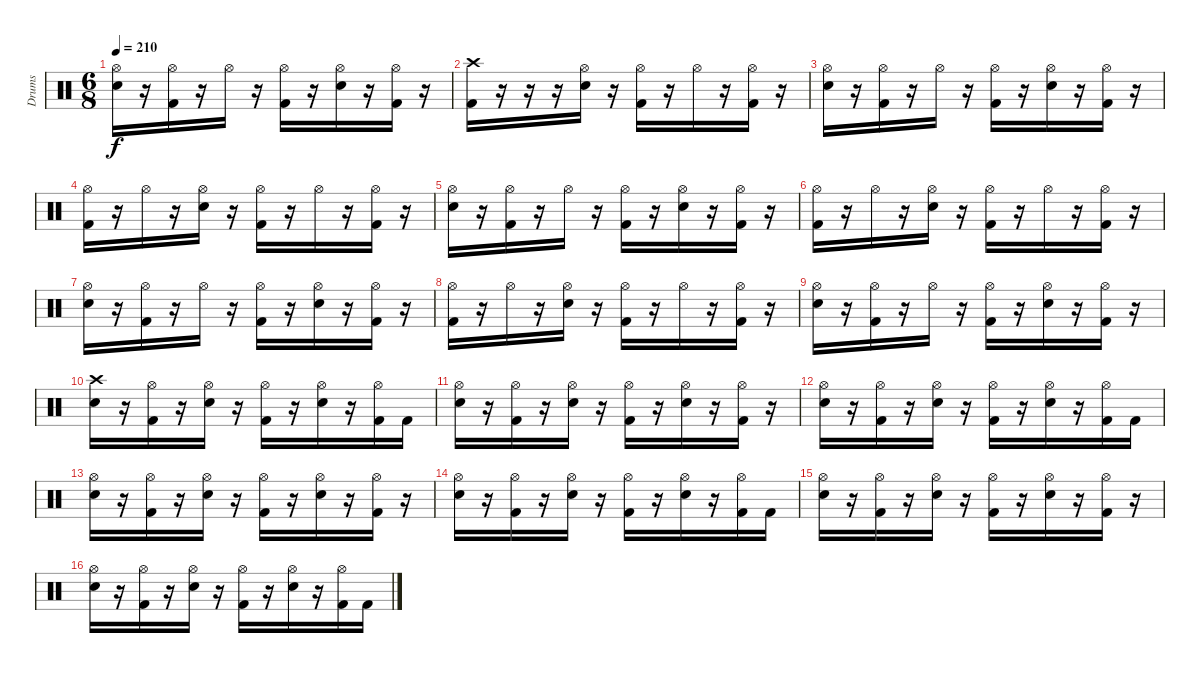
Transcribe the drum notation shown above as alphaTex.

\track ("Drums" "Drums") {instrument percussion}
\staff {score}
\articulation defaults
\ts (6 8)
\tempo 210
\clef neutral
\ks c
("Hi-Hat (open)" "Electric Snare (hit)").16{dy f} r.16 ("Hi-Hat (open)" "Kick (hit) 2").16 r.16 "Hi-Hat (open)".16 r.16 ("Hi-Hat (open)" "Kick (hit) 2").16 r.16 ("Hi-Hat (open)" "Electric Snare (hit)").16 r.16 ("Hi-Hat (open)" "Kick (hit) 2").16 r.16 |
("Crash high (hit)" "Kick (hit) 2").16 r.16 r.16 r.16 ("Hi-Hat (open)" "Electric Snare (hit)").16 r.16 ("Hi-Hat (open)" "Kick (hit) 2").16 r.16 "Hi-Hat (open)".16 r.16 ("Hi-Hat (open)" "Kick (hit) 2").16 r.16 |
("Hi-Hat (open)" "Electric Snare (hit)").16 r.16 ("Hi-Hat (open)" "Kick (hit) 2").16 r.16 "Hi-Hat (open)".16 r.16 ("Hi-Hat (open)" "Kick (hit) 2").16 r.16 ("Hi-Hat (open)" "Electric Snare (hit)").16 r.16 ("Hi-Hat (open)" "Kick (hit) 2").16 r.16 |
("Hi-Hat (open)" "Kick (hit) 2").16 r.16 "Hi-Hat (open)".16 r.16 ("Hi-Hat (open)" "Electric Snare (hit)").16 r.16 ("Hi-Hat (open)" "Kick (hit) 2").16 r.16 "Hi-Hat (open)".16 r.16 ("Hi-Hat (open)" "Kick (hit) 2").16 r.16 |
("Hi-Hat (open)" "Electric Snare (hit)").16 r.16 ("Hi-Hat (open)" "Kick (hit) 2").16 r.16 "Hi-Hat (open)".16 r.16 ("Hi-Hat (open)" "Kick (hit) 2").16 r.16 ("Hi-Hat (open)" "Electric Snare (hit)").16 r.16 ("Hi-Hat (open)" "Kick (hit) 2").16 r.16 |
("Hi-Hat (open)" "Kick (hit) 2").16 r.16 "Hi-Hat (open)".16 r.16 ("Hi-Hat (open)" "Electric Snare (hit)").16 r.16 ("Hi-Hat (open)" "Kick (hit) 2").16 r.16 "Hi-Hat (open)".16 r.16 ("Hi-Hat (open)" "Kick (hit) 2").16 r.16 |
("Hi-Hat (open)" "Electric Snare (hit)").16 r.16 ("Hi-Hat (open)" "Kick (hit) 2").16 r.16 "Hi-Hat (open)".16 r.16 ("Hi-Hat (open)" "Kick (hit) 2").16 r.16 ("Hi-Hat (open)" "Electric Snare (hit)").16 r.16 ("Hi-Hat (open)" "Kick (hit) 2").16 r.16 |
("Hi-Hat (open)" "Kick (hit) 2").16 r.16 "Hi-Hat (open)".16 r.16 ("Hi-Hat (open)" "Electric Snare (hit)").16 r.16 ("Hi-Hat (open)" "Kick (hit) 2").16 r.16 "Hi-Hat (open)".16 r.16 ("Hi-Hat (open)" "Kick (hit) 2").16 r.16 |
("Hi-Hat (open)" "Electric Snare (hit)").16 r.16 ("Hi-Hat (open)" "Kick (hit) 2").16 r.16 "Hi-Hat (open)".16 r.16 ("Hi-Hat (open)" "Kick (hit) 2").16 r.16 ("Hi-Hat (open)" "Electric Snare (hit)").16 r.16 ("Hi-Hat (open)" "Kick (hit) 2").16 r.16 |
("Crash high (hit)" "Electric Snare (hit)").16 r.16 ("Hi-Hat (open)" "Kick (hit) 2").16 r.16 ("Hi-Hat (open)" "Electric Snare (hit)").16 r.16 ("Hi-Hat (open)" "Kick (hit) 2").16 r.16 ("Hi-Hat (open)" "Electric Snare (hit)").16 r.16 ("Hi-Hat (open)" "Kick (hit) 2").16 "Kick (hit) 2".16 |
("Hi-Hat (open)" "Electric Snare (hit)").16 r.16 ("Hi-Hat (open)" "Kick (hit) 2").16 r.16 ("Hi-Hat (open)" "Electric Snare (hit)").16 r.16 ("Hi-Hat (open)" "Kick (hit) 2").16 r.16 ("Hi-Hat (open)" "Electric Snare (hit)").16 r.16 ("Hi-Hat (open)" "Kick (hit) 2").16 r.16 |
("Hi-Hat (open)" "Electric Snare (hit)").16 r.16 ("Hi-Hat (open)" "Kick (hit) 2").16 r.16 ("Hi-Hat (open)" "Electric Snare (hit)").16 r.16 ("Hi-Hat (open)" "Kick (hit) 2").16 r.16 ("Hi-Hat (open)" "Electric Snare (hit)").16 r.16 ("Hi-Hat (open)" "Kick (hit) 2").16 "Kick (hit) 2".16 |
("Hi-Hat (open)" "Electric Snare (hit)").16 r.16 ("Hi-Hat (open)" "Kick (hit) 2").16 r.16 ("Hi-Hat (open)" "Electric Snare (hit)").16 r.16 ("Hi-Hat (open)" "Kick (hit) 2").16 r.16 ("Hi-Hat (open)" "Electric Snare (hit)").16 r.16 ("Hi-Hat (open)" "Kick (hit) 2").16 r.16 |
("Hi-Hat (open)" "Electric Snare (hit)").16 r.16 ("Hi-Hat (open)" "Kick (hit) 2").16 r.16 ("Hi-Hat (open)" "Electric Snare (hit)").16 r.16 ("Hi-Hat (open)" "Kick (hit) 2").16 r.16 ("Hi-Hat (open)" "Electric Snare (hit)").16 r.16 ("Hi-Hat (open)" "Kick (hit) 2").16 "Kick (hit) 2".16 |
("Hi-Hat (open)" "Electric Snare (hit)").16 r.16 ("Hi-Hat (open)" "Kick (hit) 2").16 r.16 ("Hi-Hat (open)" "Electric Snare (hit)").16 r.16 ("Hi-Hat (open)" "Kick (hit) 2").16 r.16 ("Hi-Hat (open)" "Electric Snare (hit)").16 r.16 ("Hi-Hat (open)" "Kick (hit) 2").16 r.16 |
("Hi-Hat (open)" "Electric Snare (hit)").16 r.16 ("Hi-Hat (open)" "Kick (hit) 2").16 r.16 ("Hi-Hat (open)" "Electric Snare (hit)").16 r.16 ("Hi-Hat (open)" "Kick (hit) 2").16 r.16 ("Hi-Hat (open)" "Electric Snare (hit)").16 r.16 ("Hi-Hat (open)" "Kick (hit) 2").16 "Kick (hit) 2".16
